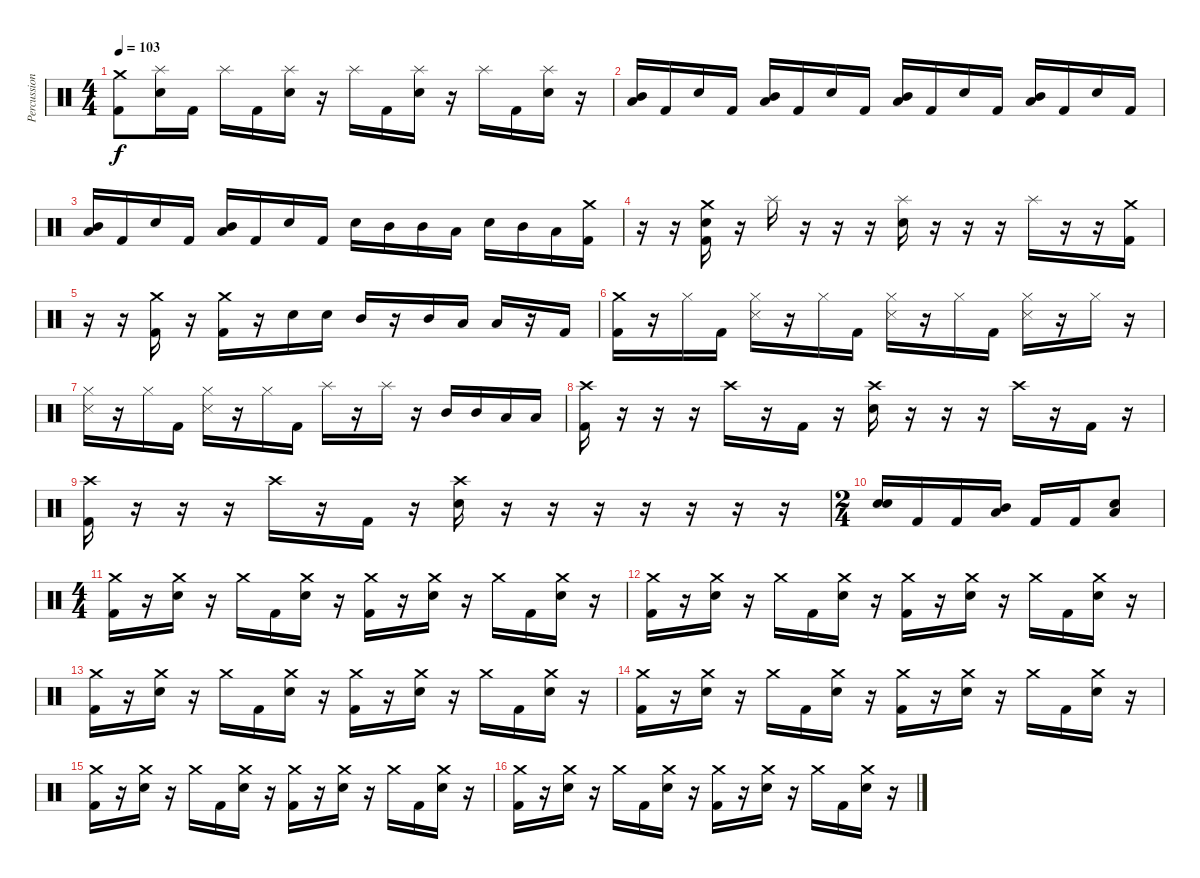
\track ("Percussion" "Percussion") {instrument percussion}
\staff {score}
\articulation defaults
\ts (4 4)
\tempo 103
\clef neutral
\ks c
("Crash medium (hit)" "Kick (hit) 2").8{dy f} ("Splash (hit)" "Electric Snare (hit)").16 "Kick (hit) 2".16 "Splash (hit)".16 "Kick (hit) 2".16 ("Splash (hit)" "Electric Snare (hit)").16 r.16 "Splash (hit)".16 "Kick (hit) 2".16 ("Splash (hit)" "Electric Snare (hit)").16 r.16 "Splash (hit)".16 "Kick (hit) 2".16 ("Splash (hit)" "Electric Snare (hit)").16 r.16 |
("Mid Tom (hit)" "Low Tom (hit)").16 "Kick (hit) 2".16 "Electric Snare (hit)".16 "Kick (hit) 2".16 ("Mid Tom (hit)" "Low Tom (hit)").16 "Kick (hit) 2".16 "Electric Snare (hit)".16 "Kick (hit) 2".16 ("Mid Tom (hit)" "Low Tom (hit)").16 "Kick (hit) 2".16 "Electric Snare (hit)".16 "Kick (hit) 2".16 ("Mid Tom (hit)" "Low Tom (hit)").16 "Kick (hit) 2".16 "Electric Snare (hit)".16 "Kick (hit) 2".16 |
("Mid Tom (hit)" "Low Tom (hit)").16 "Kick (hit) 2".16 "Electric Snare (hit)".16 "Kick (hit) 2".16 ("Mid Tom (hit)" "Low Tom (hit)").16 "Kick (hit) 2".16 "Electric Snare (hit)".16 "Kick (hit) 2".16 "Electric Snare (hit)".16 "Mid Tom (hit)".16 "Mid Tom (hit)".16 "Low Tom (hit)".16 "Electric Snare (hit)".16 "Mid Tom (hit)".16 "Low Tom (hit)".16 ("Crash medium (hit)" "Kick (hit) 2").16 |
r.16 r.16 ("Crash medium (hit)" "Electric Snare (hit)" "Kick (hit) 2").16 r.16 "Splash (hit)".16 r.16 r.16 r.16 ("Splash (hit)" "Electric Snare (hit)").16 r.16 r.16 r.16 "Splash (hit)".16 r.16 r.16 ("Crash medium (hit)" "Kick (hit) 2").16 |
r.16 r.16 ("Crash medium (hit)" "Kick (hit) 2").16 r.16 ("Crash medium (hit)" "Kick (hit) 2").16 r.16 "Electric Snare (hit)".16 "Electric Snare (hit)".16 "Mid Tom (hit)".16 r.16 "Mid Tom (hit)".16 "Low Tom (hit)".16 "Low Tom (hit)".16 r.16 "Kick (hit) 2".16 |
("Crash medium (hit)" "Kick (hit) 2").16 r.16 "Hi-Hat (closed)".16 "Kick (hit) 2".16 ("Hi-Hat (closed)" "Snare (side stick) 3").16 r.16 "Hi-Hat (closed)".16 "Kick (hit) 2".16 ("Hi-Hat (closed)" "Snare (side stick) 3").16 r.16 "Hi-Hat (closed)".16 "Kick (hit) 2".16 ("Hi-Hat (closed)" "Snare (side stick) 3").16 r.16 "Hi-Hat (closed)".16 r.16 |
("Hi-Hat (closed)" "Snare (side stick) 3").16 r.16 "Hi-Hat (closed)".16 "Kick (hit) 2".16 ("Hi-Hat (closed)" "Snare (side stick) 3").16 r.16 "Hi-Hat (closed)".16 "Kick (hit) 2".16 "Splash (hit)".16 r.16 "Splash (hit)".16 r.16 "Mid Tom (hit)".16 "Mid Tom (hit)".16 "Low Tom (hit)".16 "Low Tom (hit)".16 |
("Crash high (hit)" "Kick (hit) 2").16 r.16 r.16 r.16 "Crash high (hit)".16 r.16 "Kick (hit) 2".16 r.16 ("Crash high (hit)" "Electric Snare (hit)").16 r.16 r.16 r.16 "Crash high (hit)".16 r.16 "Kick (hit) 2".16 r.16 |
("Crash high (hit)" "Kick (hit) 2").16 r.16 r.16 r.16 "Crash high (hit)".16 r.16 "Kick (hit) 2".16 r.16 ("Crash high (hit)" "Electric Snare (hit)").16 r.16 r.16 r.16 r.16 r.16 r.16 r.16 |
\ts (2 4)
("Electric Snare (hit)" "Electric Snare (hit)").16 "Kick (hit) 2".16 "Kick (hit) 2".16 ("Mid Tom (hit)" "Low Tom (hit)").16 "Kick (hit) 2".16 "Kick (hit) 2".16 ("Low Tom (hit)" "Electric Snare (hit)").8 |
\ts (4 4)
("Crash medium (hit)" "Kick (hit) 2").16 r.16 ("Crash medium (hit)" "Electric Snare (hit)").16 r.16 "Crash medium (hit)".16 "Kick (hit) 2".16 ("Crash medium (hit)" "Electric Snare (hit)").16 r.16 ("Crash medium (hit)" "Kick (hit) 2").16 r.16 ("Crash medium (hit)" "Electric Snare (hit)").16 r.16 "Crash medium (hit)".16 "Kick (hit) 2".16 ("Crash medium (hit)" "Electric Snare (hit)").16 r.16 |
("Crash medium (hit)" "Kick (hit) 2").16 r.16 ("Crash medium (hit)" "Electric Snare (hit)").16 r.16 "Crash medium (hit)".16 "Kick (hit) 2".16 ("Crash medium (hit)" "Electric Snare (hit)").16 r.16 ("Crash medium (hit)" "Kick (hit) 2").16 r.16 ("Crash medium (hit)" "Electric Snare (hit)").16 r.16 "Crash medium (hit)".16 "Kick (hit) 2".16 ("Crash medium (hit)" "Electric Snare (hit)").16 r.16 |
("Crash medium (hit)" "Kick (hit) 2").16 r.16 ("Crash medium (hit)" "Electric Snare (hit)").16 r.16 "Crash medium (hit)".16 "Kick (hit) 2".16 ("Crash medium (hit)" "Electric Snare (hit)").16 r.16 ("Crash medium (hit)" "Kick (hit) 2").16 r.16 ("Crash medium (hit)" "Electric Snare (hit)").16 r.16 "Crash medium (hit)".16 "Kick (hit) 2".16 ("Crash medium (hit)" "Electric Snare (hit)").16 r.16 |
("Crash medium (hit)" "Kick (hit) 2").16 r.16 ("Crash medium (hit)" "Electric Snare (hit)").16 r.16 "Crash medium (hit)".16 "Kick (hit) 2".16 ("Crash medium (hit)" "Electric Snare (hit)").16 r.16 ("Crash medium (hit)" "Kick (hit) 2").16 r.16 ("Crash medium (hit)" "Electric Snare (hit)").16 r.16 "Crash medium (hit)".16 "Kick (hit) 2".16 ("Crash medium (hit)" "Electric Snare (hit)").16 r.16 |
("Crash medium (hit)" "Kick (hit) 2").16 r.16 ("Crash medium (hit)" "Electric Snare (hit)").16 r.16 "Crash medium (hit)".16 "Kick (hit) 2".16 ("Crash medium (hit)" "Electric Snare (hit)").16 r.16 ("Crash medium (hit)" "Kick (hit) 2").16 r.16 ("Crash medium (hit)" "Electric Snare (hit)").16 r.16 "Crash medium (hit)".16 "Kick (hit) 2".16 ("Crash medium (hit)" "Electric Snare (hit)").16 r.16 |
("Crash medium (hit)" "Kick (hit) 2").16 r.16 ("Crash medium (hit)" "Electric Snare (hit)").16 r.16 "Crash medium (hit)".16 "Kick (hit) 2".16 ("Crash medium (hit)" "Electric Snare (hit)").16 r.16 ("Crash medium (hit)" "Kick (hit) 2").16 r.16 ("Crash medium (hit)" "Electric Snare (hit)").16 r.16 "Crash medium (hit)".16 "Kick (hit) 2".16 ("Crash medium (hit)" "Electric Snare (hit)").16 r.16
